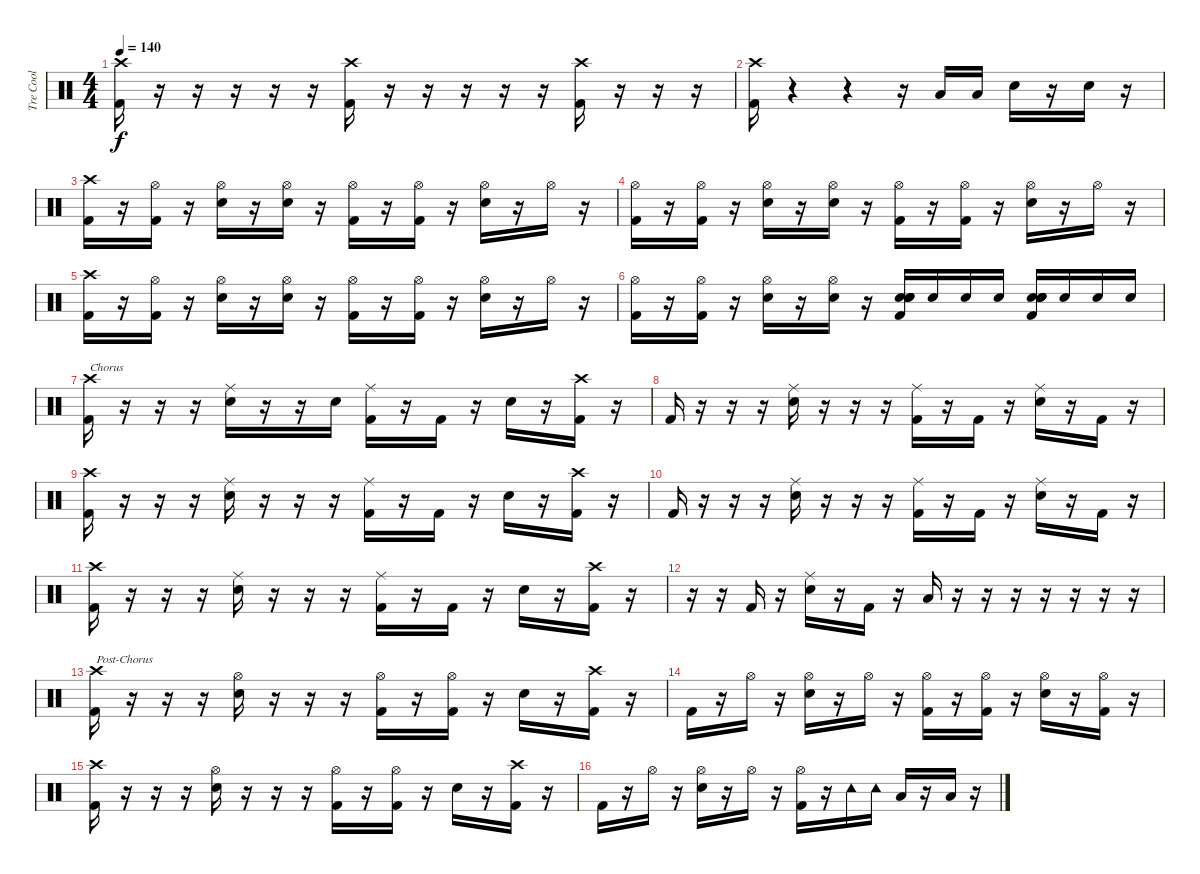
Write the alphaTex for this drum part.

\track ("Tre Cool" "Tre Cool") {instrument percussion}
\staff {score}
\articulation defaults
\ts (4 4)
\tempo 140
\clef neutral
\ks c
("Crash high (hit)" "Kick (hit) 2").16{dy f} r.16 r.16 r.16 r.16 r.16 ("Crash high (hit)" "Kick (hit) 2").16 r.16 r.16 r.16 r.16 r.16 ("Crash high (hit)" "Kick (hit) 2").16 r.16 r.16 r.16 |
("Crash high (hit)" "Kick (hit) 2").16 r.4 r.4 r.16 "Low Floor Tom (hit)".16 "Low Floor Tom (hit)".16 "Snare (hit) 2".16 r.16 "Snare (hit) 2".16 r.16 |
("Crash high (hit)" "Kick (hit) 2").16 r.16 ("Hi-Hat (open)" "Kick (hit) 2").16 r.16 ("Hi-Hat (open)" "Snare (hit) 2").16 r.16 ("Hi-Hat (open)" "Snare (hit) 2").16 r.16 ("Hi-Hat (open)" "Kick (hit) 2").16 r.16 ("Hi-Hat (open)" "Kick (hit) 2").16 r.16 ("Hi-Hat (open)" "Snare (hit) 2").16 r.16 "Hi-Hat (open)".16 r.16 |
("Hi-Hat (open)" "Kick (hit) 2").16 r.16 ("Hi-Hat (open)" "Kick (hit) 2").16 r.16 ("Hi-Hat (open)" "Snare (hit) 2").16 r.16 ("Hi-Hat (open)" "Snare (hit) 2").16 r.16 ("Hi-Hat (open)" "Kick (hit) 2").16 r.16 ("Hi-Hat (open)" "Kick (hit) 2").16 r.16 ("Hi-Hat (open)" "Snare (hit) 2").16 r.16 "Hi-Hat (open)".16 r.16 |
("Crash high (hit)" "Kick (hit) 2").16 r.16 ("Hi-Hat (open)" "Kick (hit) 2").16 r.16 ("Hi-Hat (open)" "Snare (hit) 2").16 r.16 ("Hi-Hat (open)" "Snare (hit) 2").16 r.16 ("Hi-Hat (open)" "Kick (hit) 2").16 r.16 ("Hi-Hat (open)" "Kick (hit) 2").16 r.16 ("Hi-Hat (open)" "Snare (hit) 2").16 r.16 "Hi-Hat (open)".16 r.16 |
("Hi-Hat (open)" "Kick (hit) 2").16 r.16 ("Hi-Hat (open)" "Kick (hit) 2").16 r.16 ("Hi-Hat (open)" "Snare (hit) 2").16 r.16 ("Hi-Hat (open)" "Snare (hit) 2").16 r.16 ("Snare (hit) 2" "Snare (hit) 2" "Snare (hit) 2" "Snare (hit) 2" "Kick (hit) 2").16 "Snare (hit) 2".16 "Snare (hit) 2".16 "Snare (hit) 2".16 ("Snare (hit) 2" "Snare (hit) 2" "Snare (hit) 2" "Snare (hit) 2" "Kick (hit) 2").16 "Snare (hit) 2".16 "Snare (hit) 2".16 "Snare (hit) 2".16 |
("Crash high (hit)" "Kick (hit) 2").16{txt "Chorus"} r.16 r.16 r.16 ("Ride (middle)" "Snare (hit) 2").16 r.16 r.16 "Snare (hit) 2".16 ("Ride (middle)" "Kick (hit) 2").16 r.16 "Kick (hit) 2".16 r.16 "Snare (hit) 2".16 r.16 ("Crash high (hit)" "Kick (hit) 2").16 r.16 |
"Kick (hit) 2".16 r.16 r.16 r.16 ("Ride (middle)" "Snare (hit) 2").16 r.16 r.16 r.16 ("Ride (middle)" "Kick (hit) 2").16 r.16 "Kick (hit) 2".16 r.16 ("Ride (middle)" "Snare (hit) 2").16 r.16 "Kick (hit) 2".16 r.16 |
("Crash high (hit)" "Kick (hit) 2").16 r.16 r.16 r.16 ("Ride (middle)" "Snare (hit) 2").16 r.16 r.16 r.16 ("Ride (middle)" "Kick (hit) 2").16 r.16 "Kick (hit) 2".16 r.16 "Snare (hit) 2".16 r.16 ("Crash high (hit)" "Kick (hit) 2").16 r.16 |
"Kick (hit) 2".16 r.16 r.16 r.16 ("Ride (middle)" "Snare (hit) 2").16 r.16 r.16 r.16 ("Ride (middle)" "Kick (hit) 2").16 r.16 "Kick (hit) 2".16 r.16 ("Ride (middle)" "Snare (hit) 2").16 r.16 "Kick (hit) 2".16 r.16 |
("Crash high (hit)" "Kick (hit) 2").16 r.16 r.16 r.16 ("Ride (middle)" "Snare (hit) 2").16 r.16 r.16 r.16 ("Ride (middle)" "Kick (hit) 2").16 r.16 "Kick (hit) 2".16 r.16 "Snare (hit) 2".16 r.16 ("Crash high (hit)" "Kick (hit) 2").16 r.16 |
r.16 r.16 "Kick (hit) 2".16 r.16 ("Ride (middle)" "Snare (hit) 2").16 r.16 "Kick (hit) 2".16 r.16 "Low Floor Tom (hit)".16 r.16 r.16 r.16 r.16 r.16 r.16 r.16 |
("Crash high (hit)" "Kick (hit) 2").16{txt "Post-Chorus"} r.16 r.16 r.16 ("Hi-Hat (open)" "Snare (hit) 2").16 r.16 r.16 r.16 ("Hi-Hat (open)" "Kick (hit) 2").16 r.16 ("Hi-Hat (open)" "Kick (hit) 2").16 r.16 "Snare (hit) 2".16 r.16 ("Crash high (hit)" "Kick (hit) 2").16 r.16 |
"Kick (hit) 2".16 r.16 "Hi-Hat (open)".16 r.16 ("Hi-Hat (open)" "Snare (hit) 2").16 r.16 "Hi-Hat (open)".16 r.16 ("Hi-Hat (open)" "Kick (hit) 2").16 r.16 ("Hi-Hat (open)" "Kick (hit) 2").16 r.16 ("Hi-Hat (open)" "Snare (hit) 2").16 r.16 ("Hi-Hat (open)" "Kick (hit) 2").16 r.16 |
("Crash high (hit)" "Kick (hit) 2").16 r.16 r.16 r.16 ("Hi-Hat (open)" "Snare (hit) 2").16 r.16 r.16 r.16 ("Hi-Hat (open)" "Kick (hit) 2").16 r.16 ("Hi-Hat (open)" "Kick (hit) 2").16 r.16 "Snare (hit) 2".16 r.16 ("Crash high (hit)" "Kick (hit) 2").16 r.16 |
"Kick (hit) 2".16 r.16 "Hi-Hat (open)".16 r.16 ("Hi-Hat (open)" "Snare (hit) 2").16 r.16 "Hi-Hat (open)".16 r.16 ("Hi-Hat (open)" "Kick (hit) 2").16 r.16 "Tambourine (hit)".16 "Tambourine (hit)".16 "Low Floor Tom (hit)".16 r.16 "Low Floor Tom (hit)".16 r.16
